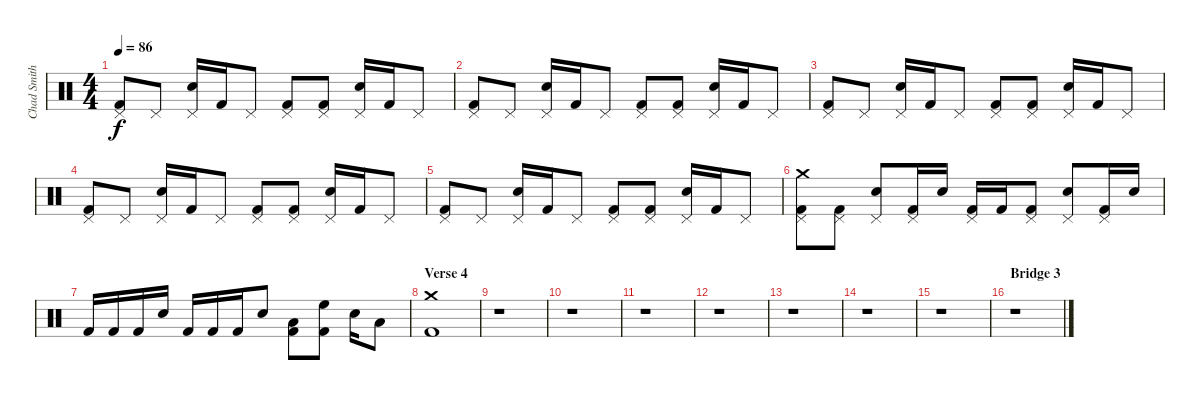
\track ("Chad Smith (Percussions)" "Chad Smith") {instrument percussion}
\staff {score}
\articulation defaults
\ts (4 4)
\tempo 86
\clef neutral
\ks c
("Pedal Hi-Hat (hit)" "Kick (hit) 2").8{dy f} "Pedal Hi-Hat (hit)".8 ("Pedal Hi-Hat (hit)" "Electric Snare (hit)").16 "Kick (hit) 2".16 "Pedal Hi-Hat (hit)".8 ("Pedal Hi-Hat (hit)" "Kick (hit) 2").8 ("Pedal Hi-Hat (hit)" "Kick (hit) 2").8 ("Pedal Hi-Hat (hit)" "Electric Snare (hit)").16 "Kick (hit) 2".16 "Pedal Hi-Hat (hit)".8 |
("Pedal Hi-Hat (hit)" "Kick (hit) 2").8 "Pedal Hi-Hat (hit)".8 ("Pedal Hi-Hat (hit)" "Electric Snare (hit)").16 "Kick (hit) 2".16 "Pedal Hi-Hat (hit)".8 ("Pedal Hi-Hat (hit)" "Kick (hit) 2").8 ("Pedal Hi-Hat (hit)" "Kick (hit) 2").8 ("Pedal Hi-Hat (hit)" "Electric Snare (hit)").16 "Kick (hit) 2".16 "Pedal Hi-Hat (hit)".8 |
("Pedal Hi-Hat (hit)" "Kick (hit) 2").8 "Pedal Hi-Hat (hit)".8 ("Pedal Hi-Hat (hit)" "Electric Snare (hit)").16 "Kick (hit) 2".16 "Pedal Hi-Hat (hit)".8 ("Pedal Hi-Hat (hit)" "Kick (hit) 2").8 ("Pedal Hi-Hat (hit)" "Kick (hit) 2").8 ("Pedal Hi-Hat (hit)" "Electric Snare (hit)").16 "Kick (hit) 2".16 "Pedal Hi-Hat (hit)".8 |
("Pedal Hi-Hat (hit)" "Kick (hit) 2").8 "Pedal Hi-Hat (hit)".8 ("Pedal Hi-Hat (hit)" "Electric Snare (hit)").16 "Kick (hit) 2".16 "Pedal Hi-Hat (hit)".8 ("Pedal Hi-Hat (hit)" "Kick (hit) 2").8 ("Pedal Hi-Hat (hit)" "Kick (hit) 2").8 ("Pedal Hi-Hat (hit)" "Electric Snare (hit)").16 "Kick (hit) 2".16 "Pedal Hi-Hat (hit)".8 |
("Pedal Hi-Hat (hit)" "Kick (hit) 2").8 "Pedal Hi-Hat (hit)".8 ("Pedal Hi-Hat (hit)" "Electric Snare (hit)").16 "Kick (hit) 2".16 "Pedal Hi-Hat (hit)".8 ("Pedal Hi-Hat (hit)" "Kick (hit) 2").8 ("Pedal Hi-Hat (hit)" "Kick (hit) 2").8 ("Pedal Hi-Hat (hit)" "Electric Snare (hit)").16 "Kick (hit) 2".16 "Pedal Hi-Hat (hit)".8 |
("Crash medium (hit)" "Pedal Hi-Hat (hit)" "Kick (hit) 2").8 ("Pedal Hi-Hat (hit)" "Kick (hit) 2").8 ("Pedal Hi-Hat (hit)" "Electric Snare (hit)").8 ("Pedal Hi-Hat (hit)" "Kick (hit) 2").16 "Electric Snare (hit)".16 ("Pedal Hi-Hat (hit)" "Kick (hit) 2").16 "Kick (hit) 2".16 ("Pedal Hi-Hat (hit)" "Kick (hit) 2").8 ("Pedal Hi-Hat (hit)" "Electric Snare (hit)").8 ("Pedal Hi-Hat (hit)" "Kick (hit) 2").16 "Electric Snare (hit)".16 |
"Kick (hit) 2".16 "Kick (hit) 2".16 "Kick (hit) 2".16 "Electric Snare (hit)".16 "Kick (hit) 2".16 "Kick (hit) 2".16 "Kick (hit) 2".16 "Electric Snare (hit)".8 ("Low Floor Tom (hit)" "Kick (hit) 2").8 ("Kick (hit) 2" "High Floor Tom (hit)").8 "Electric Snare (hit)".16 "Low Floor Tom (hit)".8 |
\section ("" "Verse 4")
("Crash medium (hit)" "Kick (hit) 2").1 |
r.1 |
r.1 |
r.1 |
r.1 |
r.1 |
r.1 |
r.1 |
\section ("" "Bridge 3")
r.1
